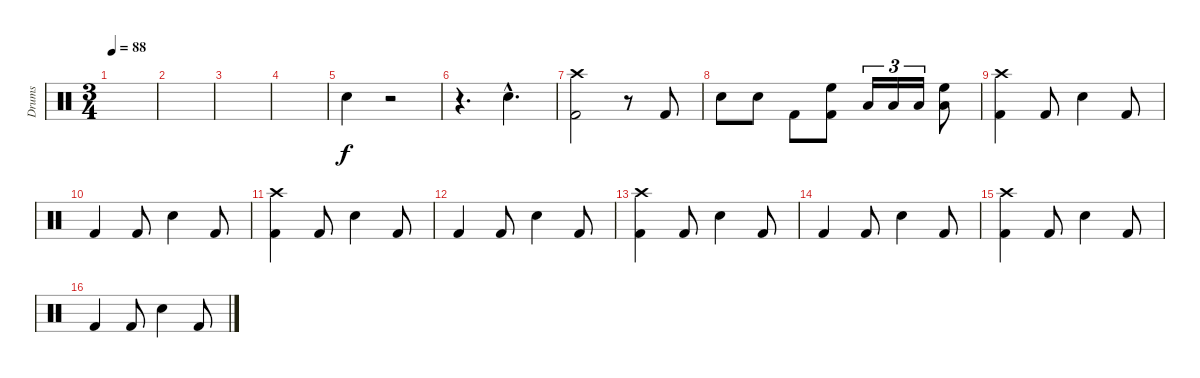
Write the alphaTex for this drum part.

\track ("Drums" "Drums") {instrument percussion}
\staff {score}
\articulation defaults
\ts (3 4)
\tempo 88
\clef neutral
\ks c
|
|
|
|
"Snare (hit) 2".4 r.2 |
r.4{d} "Snare (hit) 2"{hac}.4{d} |
("Crash high (hit)" "Kick (hit) 2").2 r.8 "Kick (hit) 2".8 |
"Snare (hit) 2".8 "Snare (hit) 2".8 "Kick (hit) 2".8 ("High Floor Tom (hit)" "Kick (hit) 2").8 "Low Tom (hit)".16{tu (3 2)} "Low Tom (hit)".16{tu (3 2)} "Low Tom (hit)".16{tu (3 2)} ("Low Tom (hit)" "High Floor Tom (hit)").8 |
("Crash high (hit)" "Kick (hit) 2").4 "Kick (hit) 2".8 "Snare (hit) 2".4 "Kick (hit) 2".8 |
"Kick (hit) 2".4 "Kick (hit) 2".8 "Snare (hit) 2".4 "Kick (hit) 2".8 |
("Crash high (hit)" "Kick (hit) 2").4 "Kick (hit) 2".8 "Snare (hit) 2".4 "Kick (hit) 2".8 |
"Kick (hit) 2".4 "Kick (hit) 2".8 "Snare (hit) 2".4 "Kick (hit) 2".8 |
("Crash high (hit)" "Kick (hit) 2").4 "Kick (hit) 2".8 "Snare (hit) 2".4 "Kick (hit) 2".8 |
"Kick (hit) 2".4 "Kick (hit) 2".8 "Snare (hit) 2".4 "Kick (hit) 2".8 |
("Crash high (hit)" "Kick (hit) 2").4 "Kick (hit) 2".8 "Snare (hit) 2".4 "Kick (hit) 2".8 |
"Kick (hit) 2".4 "Kick (hit) 2".8 "Snare (hit) 2".4 "Kick (hit) 2".8
